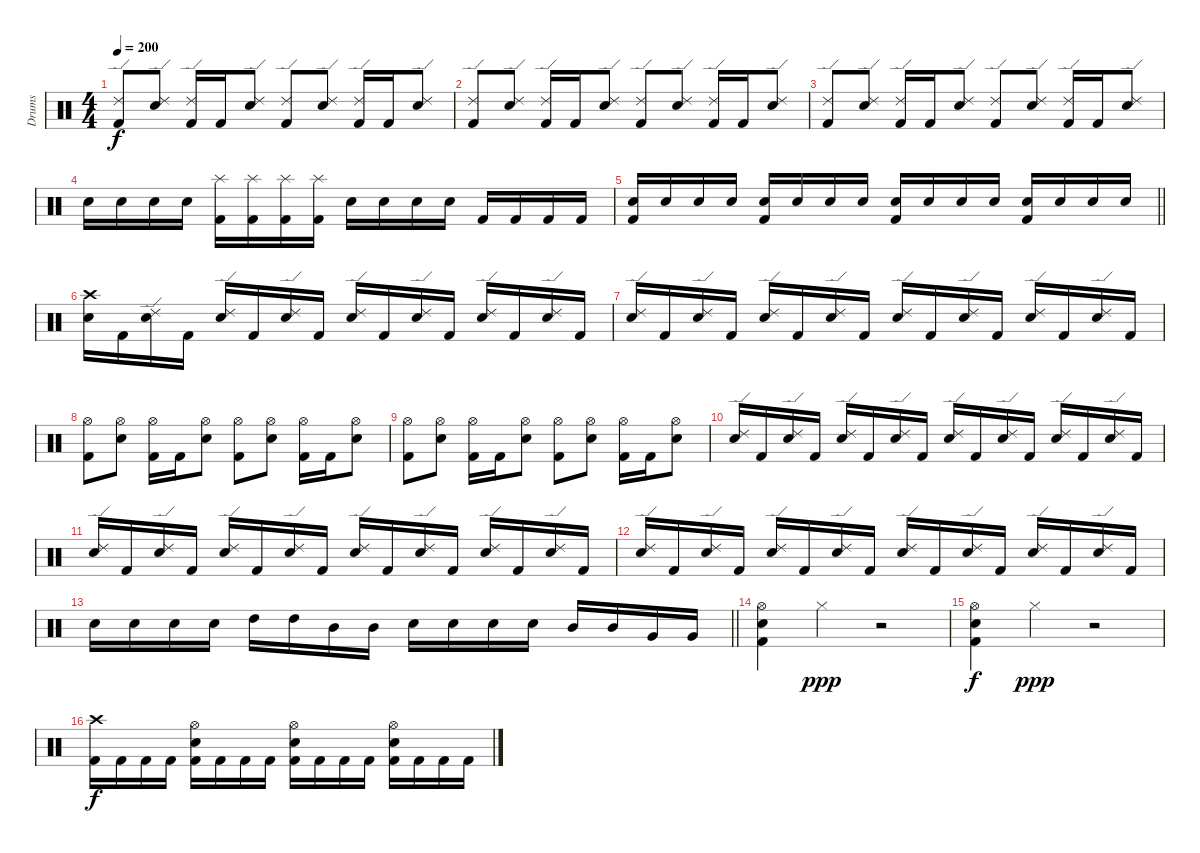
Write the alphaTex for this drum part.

\track ("Drums" "Drums") {instrument percussion}
\staff {score}
\articulation defaults
\ts (4 4)
\tempo 200
\clef neutral
\ks c
("Kick (hit) 2" "Ride (edge) 2").8{dy f} ("Snare (hit) 2" "Ride (edge) 2").8 ("Kick (hit) 2" "Ride (edge) 2").16 "Kick (hit) 2".16 ("Snare (hit) 2" "Ride (edge) 2").8 ("Kick (hit) 2" "Ride (edge) 2").8 ("Snare (hit) 2" "Ride (edge) 2").8 ("Kick (hit) 2" "Ride (edge) 2").16 "Kick (hit) 2".16 ("Snare (hit) 2" "Ride (edge) 2").8 |
("Kick (hit) 2" "Ride (edge) 2").8 ("Snare (hit) 2" "Ride (edge) 2").8 ("Kick (hit) 2" "Ride (edge) 2").16 "Kick (hit) 2".16 ("Snare (hit) 2" "Ride (edge) 2").8 ("Kick (hit) 2" "Ride (edge) 2").8 ("Snare (hit) 2" "Ride (edge) 2").8 ("Kick (hit) 2" "Ride (edge) 2").16 "Kick (hit) 2".16 ("Snare (hit) 2" "Ride (edge) 2").8 |
("Kick (hit) 2" "Ride (edge) 2").8 ("Snare (hit) 2" "Ride (edge) 2").8 ("Kick (hit) 2" "Ride (edge) 2").16 "Kick (hit) 2".16 ("Snare (hit) 2" "Ride (edge) 2").8 ("Kick (hit) 2" "Ride (edge) 2").8 ("Snare (hit) 2" "Ride (edge) 2").8 ("Kick (hit) 2" "Ride (edge) 2").16 "Kick (hit) 2".16 ("Snare (hit) 2" "Ride (edge) 2").8 |
"Snare (hit) 2".16 "Snare (hit) 2".16 "Snare (hit) 2".16 "Snare (hit) 2".16 ("Kick (hit) 2" "Splash (hit)").16 ("Kick (hit) 2" "Splash (hit)").16 ("Kick (hit) 2" "Splash (hit)").16 ("Kick (hit) 2" "Splash (hit)").16 "Snare (hit) 2".16 "Snare (hit) 2".16 "Snare (hit) 2".16 "Snare (hit) 2".16 "Kick (hit) 2".16 "Kick (hit) 2".16 "Kick (hit) 2".16 "Kick (hit) 2".16 |
\barLineRight lightlight
("Kick (hit) 2" "Snare (hit) 2").16 "Snare (hit) 2".16 "Snare (hit) 2".16 "Snare (hit) 2".16 ("Kick (hit) 2" "Snare (hit) 2").16 "Snare (hit) 2".16 "Snare (hit) 2".16 "Snare (hit) 2".16 ("Kick (hit) 2" "Snare (hit) 2").16 "Snare (hit) 2".16 "Snare (hit) 2".16 "Snare (hit) 2".16 ("Kick (hit) 2" "Snare (hit) 2").16 "Snare (hit) 2".16 "Snare (hit) 2".16 "Snare (hit) 2".16 |
\section ("" "")
("Snare (hit) 2" "Crash high (hit)").16 "Kick (hit) 2".16 ("Snare (hit) 2" "Ride (edge) 2").16 "Kick (hit) 2".16 ("Snare (hit) 2" "Ride (edge) 2").16 "Kick (hit) 2".16 ("Snare (hit) 2" "Ride (edge) 2").16 "Kick (hit) 2".16 ("Snare (hit) 2" "Ride (edge) 2").16 "Kick (hit) 2".16 ("Snare (hit) 2" "Ride (edge) 2").16 "Kick (hit) 2".16 ("Snare (hit) 2" "Ride (edge) 2").16 "Kick (hit) 2".16 ("Snare (hit) 2" "Ride (edge) 2").16 "Kick (hit) 2".16 |
("Snare (hit) 2" "Ride (edge) 2").16 "Kick (hit) 2".16 ("Snare (hit) 2" "Ride (edge) 2").16 "Kick (hit) 2".16 ("Snare (hit) 2" "Ride (edge) 2").16 "Kick (hit) 2".16 ("Snare (hit) 2" "Ride (edge) 2").16 "Kick (hit) 2".16 ("Snare (hit) 2" "Ride (edge) 2").16 "Kick (hit) 2".16 ("Snare (hit) 2" "Ride (edge) 2").16 "Kick (hit) 2".16 ("Snare (hit) 2" "Ride (edge) 2").16 "Kick (hit) 2".16 ("Snare (hit) 2" "Ride (edge) 2").16 "Kick (hit) 2".16 |
("Kick (hit) 2" "Hi-Hat (open)").8 ("Snare (hit) 2" "Hi-Hat (open)").8 ("Kick (hit) 2" "Hi-Hat (open)").16 "Kick (hit) 2".16 ("Snare (hit) 2" "Hi-Hat (open)").8 ("Kick (hit) 2" "Hi-Hat (open)").8 ("Snare (hit) 2" "Hi-Hat (open)").8 ("Kick (hit) 2" "Hi-Hat (open)").16 "Kick (hit) 2".16 ("Snare (hit) 2" "Hi-Hat (open)").8 |
("Kick (hit) 2" "Hi-Hat (open)").8 ("Snare (hit) 2" "Hi-Hat (open)").8 ("Kick (hit) 2" "Hi-Hat (open)").16 "Kick (hit) 2".16 ("Snare (hit) 2" "Hi-Hat (open)").8 ("Kick (hit) 2" "Hi-Hat (open)").8 ("Snare (hit) 2" "Hi-Hat (open)").8 ("Kick (hit) 2" "Hi-Hat (open)").16 "Kick (hit) 2".16 ("Snare (hit) 2" "Hi-Hat (open)").8 |
("Snare (hit) 2" "Ride (edge) 2").16 "Kick (hit) 2".16 ("Snare (hit) 2" "Ride (edge) 2").16 "Kick (hit) 2".16 ("Snare (hit) 2" "Ride (edge) 2").16 "Kick (hit) 2".16 ("Snare (hit) 2" "Ride (edge) 2").16 "Kick (hit) 2".16 ("Snare (hit) 2" "Ride (edge) 2").16 "Kick (hit) 2".16 ("Snare (hit) 2" "Ride (edge) 2").16 "Kick (hit) 2".16 ("Snare (hit) 2" "Ride (edge) 2").16 "Kick (hit) 2".16 ("Snare (hit) 2" "Ride (edge) 2").16 "Kick (hit) 2".16 |
("Snare (hit) 2" "Ride (edge) 2").16 "Kick (hit) 2".16 ("Snare (hit) 2" "Ride (edge) 2").16 "Kick (hit) 2".16 ("Snare (hit) 2" "Ride (edge) 2").16 "Kick (hit) 2".16 ("Snare (hit) 2" "Ride (edge) 2").16 "Kick (hit) 2".16 ("Snare (hit) 2" "Ride (edge) 2").16 "Kick (hit) 2".16 ("Snare (hit) 2" "Ride (edge) 2").16 "Kick (hit) 2".16 ("Snare (hit) 2" "Ride (edge) 2").16 "Kick (hit) 2".16 ("Snare (hit) 2" "Ride (edge) 2").16 "Kick (hit) 2".16 |
("Snare (hit) 2" "Ride (edge) 2").16 "Kick (hit) 2".16 ("Snare (hit) 2" "Ride (edge) 2").16 "Kick (hit) 2".16 ("Snare (hit) 2" "Ride (edge) 2").16 "Kick (hit) 2".16 ("Snare (hit) 2" "Ride (edge) 2").16 "Kick (hit) 2".16 ("Snare (hit) 2" "Ride (edge) 2").16 "Kick (hit) 2".16 ("Snare (hit) 2" "Ride (edge) 2").16 "Kick (hit) 2".16 ("Snare (hit) 2" "Ride (edge) 2").16 "Kick (hit) 2".16 ("Snare (hit) 2" "Ride (edge) 2").16 "Kick (hit) 2".16 |
\barLineRight lightlight "Snare (hit) 2".16 "Snare (hit) 2".16 "Snare (hit) 2".16 "Snare (hit) 2".16 "High Tom (hit)".16 "High Tom (hit)".16 "Mid Tom (hit)".16 "Mid Tom (hit)".16 "Snare (hit) 2".16 "Snare (hit) 2".16 "Snare (hit) 2".16 "Snare (hit) 2".16 "Mid Tom (hit)".16 "Mid Tom (hit)".16 "Very Low Tom (hit)".16 "Very Low Tom (hit)".16
|
\section ("" "")
("Kick (hit) 2" "Snare (hit) 2" "Hi-Hat (open)").4 "Hi-Hat (closed)".4{dy ppp} r.2 |
("Kick (hit) 2" "Snare (hit) 2" "Hi-Hat (open)").4{dy f} "Hi-Hat (closed)".4{dy ppp} r.2 |
("Kick (hit) 2" "Crash high (hit)").16{dy f} "Kick (hit) 2".16 "Kick (hit) 2".16 "Kick (hit) 2".16 ("Kick (hit) 2" "Snare (hit) 2" "Hi-Hat (open)").16 "Kick (hit) 2".16 "Kick (hit) 2".16 "Kick (hit) 2".16 ("Kick (hit) 2" "Snare (hit) 2" "Hi-Hat (open)").16 "Kick (hit) 2".16 "Kick (hit) 2".16 "Kick (hit) 2".16 ("Kick (hit) 2" "Snare (hit) 2" "Hi-Hat (open)").16 "Kick (hit) 2".16 "Kick (hit) 2".16 "Kick (hit) 2".16
